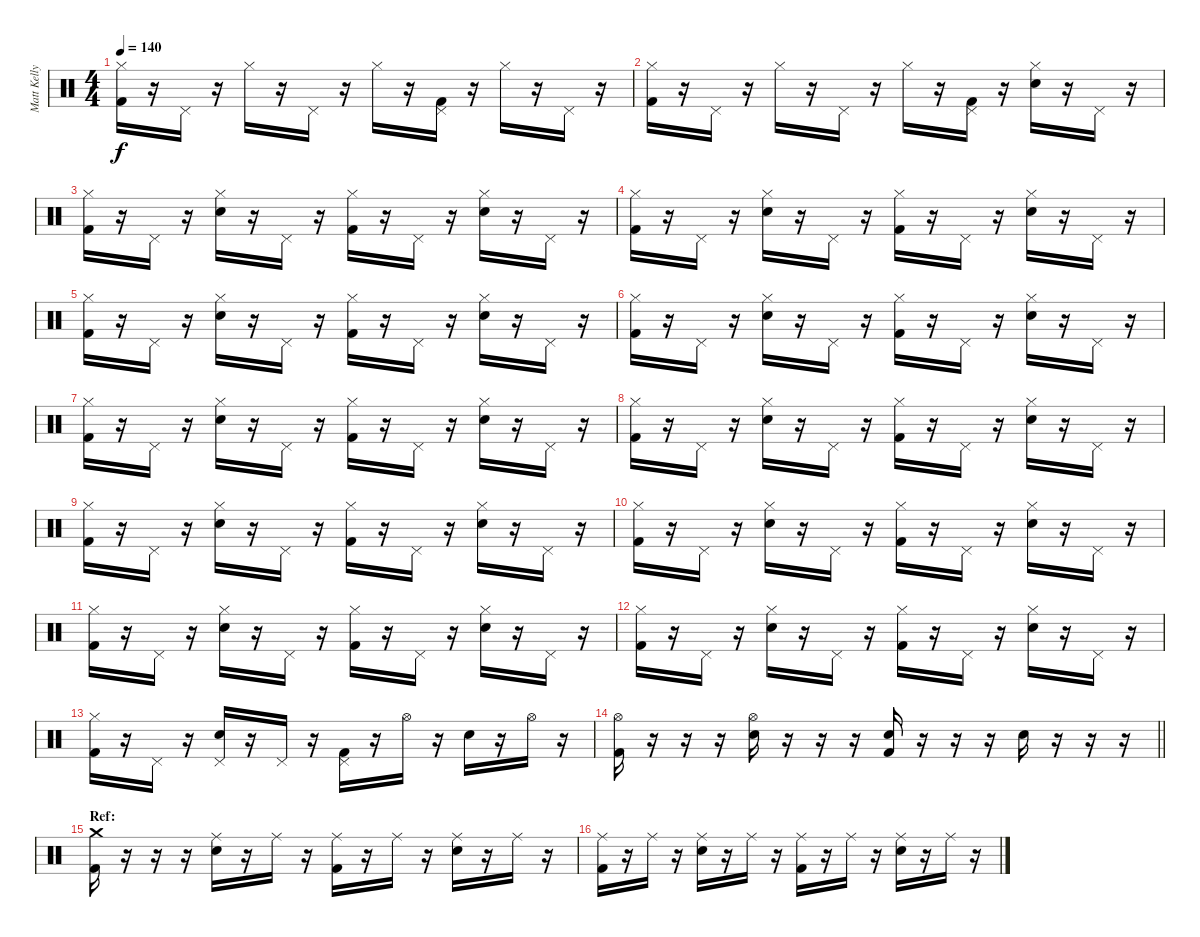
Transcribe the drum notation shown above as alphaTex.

\track ("Matt Kelly" "Matt Kelly") {instrument percussion}
\staff {score}
\articulation defaults
\ts (4 4)
\tempo 140
\clef neutral
\ks c
("Hi-Hat (closed)" "Kick (hit) 2").16{dy f} r.16 "Pedal Hi-Hat (hit)".16 r.16 "Hi-Hat (closed)".16 r.16 "Pedal Hi-Hat (hit)".16 r.16 "Hi-Hat (closed)".16 r.16 ("Pedal Hi-Hat (hit)" "Kick (hit) 2").16 r.16 "Hi-Hat (closed)".16 r.16 "Pedal Hi-Hat (hit)".16 r.16 |
("Hi-Hat (closed)" "Kick (hit) 2").16 r.16 "Pedal Hi-Hat (hit)".16 r.16 "Hi-Hat (closed)".16 r.16 "Pedal Hi-Hat (hit)".16 r.16 "Hi-Hat (closed)".16 r.16 ("Pedal Hi-Hat (hit)" "Kick (hit) 2").16 r.16 ("Hi-Hat (closed)" "Electric Snare (hit)").16 r.16 "Pedal Hi-Hat (hit)".16 r.16 |
("Hi-Hat (closed)" "Kick (hit) 2").16 r.16 "Pedal Hi-Hat (hit)".16 r.16 ("Hi-Hat (closed)" "Snare (hit) 2").16 r.16 "Pedal Hi-Hat (hit)".16 r.16 ("Hi-Hat (closed)" "Kick (hit) 2").16 r.16 "Pedal Hi-Hat (hit)".16 r.16 ("Hi-Hat (closed)" "Snare (hit) 2").16 r.16 "Pedal Hi-Hat (hit)".16 r.16 |
("Hi-Hat (closed)" "Kick (hit) 2").16 r.16 "Pedal Hi-Hat (hit)".16 r.16 ("Hi-Hat (closed)" "Snare (hit) 2").16 r.16 "Pedal Hi-Hat (hit)".16 r.16 ("Hi-Hat (closed)" "Kick (hit) 2").16 r.16 "Pedal Hi-Hat (hit)".16 r.16 ("Hi-Hat (closed)" "Snare (hit) 2").16 r.16 "Pedal Hi-Hat (hit)".16 r.16 |
("Hi-Hat (closed)" "Kick (hit) 2").16 r.16 "Pedal Hi-Hat (hit)".16 r.16 ("Hi-Hat (closed)" "Snare (hit) 2").16 r.16 "Pedal Hi-Hat (hit)".16 r.16 ("Hi-Hat (closed)" "Kick (hit) 2").16 r.16 "Pedal Hi-Hat (hit)".16 r.16 ("Hi-Hat (closed)" "Snare (hit) 2").16 r.16 "Pedal Hi-Hat (hit)".16 r.16 |
("Hi-Hat (closed)" "Kick (hit) 2").16 r.16 "Pedal Hi-Hat (hit)".16 r.16 ("Hi-Hat (closed)" "Snare (hit) 2").16 r.16 "Pedal Hi-Hat (hit)".16 r.16 ("Hi-Hat (closed)" "Kick (hit) 2").16 r.16 "Pedal Hi-Hat (hit)".16 r.16 ("Hi-Hat (closed)" "Snare (hit) 2").16 r.16 "Pedal Hi-Hat (hit)".16 r.16 |
("Hi-Hat (closed)" "Kick (hit) 2").16 r.16 "Pedal Hi-Hat (hit)".16 r.16 ("Hi-Hat (closed)" "Snare (hit) 2").16 r.16 "Pedal Hi-Hat (hit)".16 r.16 ("Hi-Hat (closed)" "Kick (hit) 2").16 r.16 "Pedal Hi-Hat (hit)".16 r.16 ("Hi-Hat (closed)" "Snare (hit) 2").16 r.16 "Pedal Hi-Hat (hit)".16 r.16 |
("Hi-Hat (closed)" "Kick (hit) 2").16 r.16 "Pedal Hi-Hat (hit)".16 r.16 ("Hi-Hat (closed)" "Snare (hit) 2").16 r.16 "Pedal Hi-Hat (hit)".16 r.16 ("Hi-Hat (closed)" "Kick (hit) 2").16 r.16 "Pedal Hi-Hat (hit)".16 r.16 ("Hi-Hat (closed)" "Snare (hit) 2").16 r.16 "Pedal Hi-Hat (hit)".16 r.16 |
("Hi-Hat (closed)" "Kick (hit) 2").16 r.16 "Pedal Hi-Hat (hit)".16 r.16 ("Hi-Hat (closed)" "Snare (hit) 2").16 r.16 "Pedal Hi-Hat (hit)".16 r.16 ("Hi-Hat (closed)" "Kick (hit) 2").16 r.16 "Pedal Hi-Hat (hit)".16 r.16 ("Hi-Hat (closed)" "Snare (hit) 2").16 r.16 "Pedal Hi-Hat (hit)".16 r.16 |
("Hi-Hat (closed)" "Kick (hit) 2").16 r.16 "Pedal Hi-Hat (hit)".16 r.16 ("Hi-Hat (closed)" "Snare (hit) 2").16 r.16 "Pedal Hi-Hat (hit)".16 r.16 ("Hi-Hat (closed)" "Kick (hit) 2").16 r.16 "Pedal Hi-Hat (hit)".16 r.16 ("Hi-Hat (closed)" "Snare (hit) 2").16 r.16 "Pedal Hi-Hat (hit)".16 r.16 |
("Hi-Hat (closed)" "Kick (hit) 2").16 r.16 "Pedal Hi-Hat (hit)".16 r.16 ("Hi-Hat (closed)" "Snare (hit) 2").16 r.16 "Pedal Hi-Hat (hit)".16 r.16 ("Hi-Hat (closed)" "Kick (hit) 2").16 r.16 "Pedal Hi-Hat (hit)".16 r.16 ("Hi-Hat (closed)" "Snare (hit) 2").16 r.16 "Pedal Hi-Hat (hit)".16 r.16 |
("Hi-Hat (closed)" "Kick (hit) 2").16 r.16 "Pedal Hi-Hat (hit)".16 r.16 ("Hi-Hat (closed)" "Snare (hit) 2").16 r.16 "Pedal Hi-Hat (hit)".16 r.16 ("Hi-Hat (closed)" "Kick (hit) 2").16 r.16 "Pedal Hi-Hat (hit)".16 r.16 ("Hi-Hat (closed)" "Snare (hit) 2").16 r.16 "Pedal Hi-Hat (hit)".16 r.16 |
("Hi-Hat (closed)" "Kick (hit) 2").16 r.16 "Pedal Hi-Hat (hit)".16 r.16 ("Pedal Hi-Hat (hit)" "Snare (hit) 2").16 r.16 "Pedal Hi-Hat (hit)".16 r.16 ("Pedal Hi-Hat (hit)" "Kick (hit) 2").16 r.16 "Hi-Hat (open)".16 r.16 "Snare (hit) 2".16 r.16 "Hi-Hat (open)".16 r.16 |
\barLineRight lightlight
("Hi-Hat (open)" "Kick (hit) 2").16 r.16 r.16 r.16 ("Hi-Hat (open)" "Snare (hit) 2").16 r.16 r.16 r.16 ("Electric Snare (hit)" "Kick (hit) 2").16 r.16 r.16 r.16 "Electric Snare (hit)".16 r.16 r.16 r.16 |
\section ("" "Ref:")
("Crash medium (hit)" "Kick (hit) 2").16 r.16 r.16 r.16 ("Ride (middle)" "Snare (hit) 2").16 r.16 "Ride (middle)".16 r.16 ("Ride (middle)" "Kick (hit) 2").16 r.16 "Ride (middle)".16 r.16 ("Ride (middle)" "Snare (hit) 2").16 r.16 "Ride (middle)".16 r.16 |
("Ride (middle)" "Kick (hit) 2").16 r.16 "Ride (middle)".16 r.16 ("Ride (middle)" "Snare (hit) 2").16 r.16 "Ride (middle)".16 r.16 ("Ride (middle)" "Kick (hit) 2").16 r.16 "Ride (middle)".16 r.16 ("Ride (middle)" "Snare (hit) 2").16 r.16 "Ride (middle)".16 r.16
